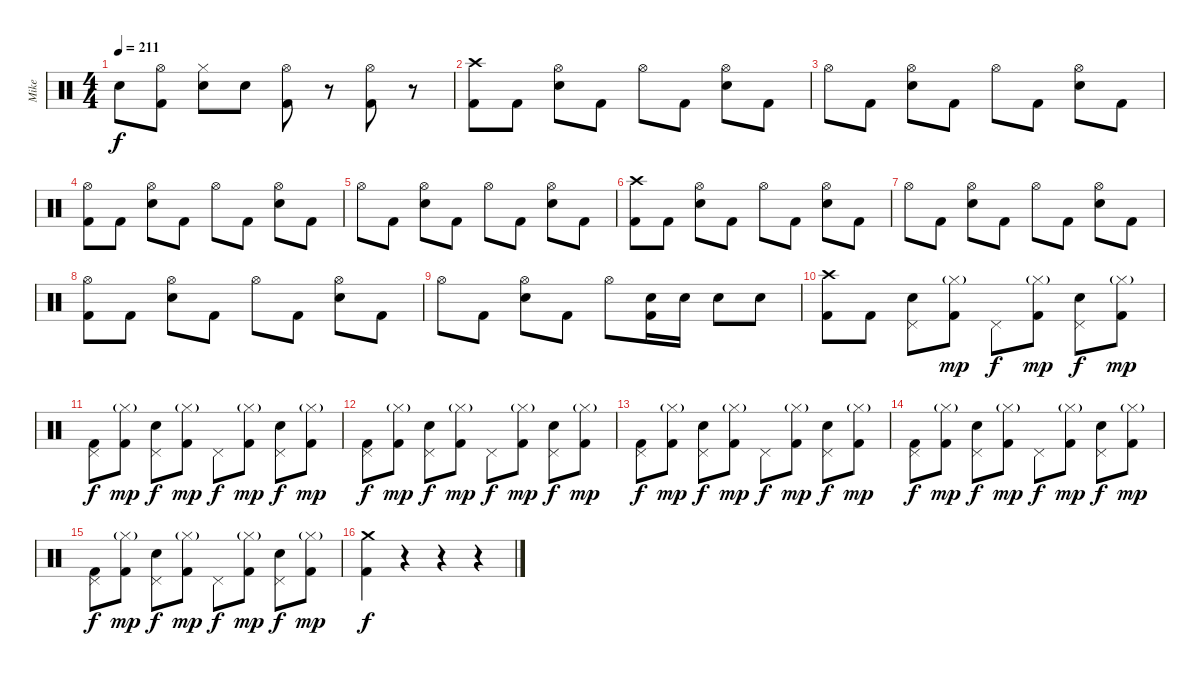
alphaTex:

\track ("Mike" "Mike") {instrument percussion}
\staff {score}
\articulation defaults
\ts (4 4)
\tempo 211
\clef neutral
\ks c "Electric Snare (hit)".8{dy f}
("Hi-Hat (open)" "Kick (hit) 2").8 ("Hi-Hat (closed)" "Electric Snare (hit)").8 "Electric Snare (hit)".8 ("Hi-Hat (open)" "Kick (hit) 2").8 r.8 ("Hi-Hat (open)" "Kick (hit) 2").8 r.8 |
("Crash high (hit)" "Kick (hit) 2").8 "Kick (hit) 2".8 ("Hi-Hat (open)" "Electric Snare (hit)").8 "Kick (hit) 2".8 "Hi-Hat (open)".8 "Kick (hit) 2".8 ("Hi-Hat (open)" "Electric Snare (hit)").8 "Kick (hit) 2".8 |
"Hi-Hat (open)".8 "Kick (hit) 2".8 ("Hi-Hat (open)" "Electric Snare (hit)").8 "Kick (hit) 2".8 "Hi-Hat (open)".8 "Kick (hit) 2".8 ("Hi-Hat (open)" "Electric Snare (hit)").8 "Kick (hit) 2".8 |
("Hi-Hat (open)" "Kick (hit) 2").8 "Kick (hit) 2".8 ("Hi-Hat (open)" "Electric Snare (hit)").8 "Kick (hit) 2".8 "Hi-Hat (open)".8 "Kick (hit) 2".8 ("Hi-Hat (open)" "Electric Snare (hit)").8 "Kick (hit) 2".8 |
"Hi-Hat (open)".8 "Kick (hit) 2".8 ("Hi-Hat (open)" "Electric Snare (hit)").8 "Kick (hit) 2".8 "Hi-Hat (open)".8 "Kick (hit) 2".8 ("Hi-Hat (open)" "Electric Snare (hit)").8 "Kick (hit) 2".8 |
("Crash high (hit)" "Kick (hit) 2").8 "Kick (hit) 2".8 ("Hi-Hat (open)" "Electric Snare (hit)").8 "Kick (hit) 2".8 "Hi-Hat (open)".8 "Kick (hit) 2".8 ("Hi-Hat (open)" "Electric Snare (hit)").8 "Kick (hit) 2".8 |
"Hi-Hat (open)".8 "Kick (hit) 2".8 ("Hi-Hat (open)" "Electric Snare (hit)").8 "Kick (hit) 2".8 "Hi-Hat (open)".8 "Kick (hit) 2".8 ("Hi-Hat (open)" "Electric Snare (hit)").8 "Kick (hit) 2".8 |
("Hi-Hat (open)" "Kick (hit) 2").8 "Kick (hit) 2".8 ("Hi-Hat (open)" "Electric Snare (hit)").8 "Kick (hit) 2".8 "Hi-Hat (open)".8 "Kick (hit) 2".8 ("Hi-Hat (open)" "Electric Snare (hit)").8 "Kick (hit) 2".8 |
"Hi-Hat (open)".8 "Kick (hit) 2".8 ("Hi-Hat (open)" "Electric Snare (hit)").8 "Kick (hit) 2".8 "Hi-Hat (open)".8 ("Electric Snare (hit)" "Kick (hit) 2").16 "Electric Snare (hit)".16 "Electric Snare (hit)".8 "Electric Snare (hit)".8 |
("Crash high (hit)" "Kick (hit) 2").8 "Kick (hit) 2".8 ("Pedal Hi-Hat (hit)" "Electric Snare (hit)").8 ("Hi-Hat (closed)"{g} "Kick (hit) 2").8{dy mp} "Pedal Hi-Hat (hit)".8{dy f} ("Hi-Hat (closed)"{g} "Kick (hit) 2").8{dy mp} ("Pedal Hi-Hat (hit)" "Electric Snare (hit)").8{dy f} ("Hi-Hat (closed)"{g} "Kick (hit) 2").8{dy mp} |
("Pedal Hi-Hat (hit)" "Kick (hit) 2").8{dy f} ("Hi-Hat (closed)"{g} "Kick (hit) 2").8{dy mp} ("Pedal Hi-Hat (hit)" "Electric Snare (hit)").8{dy f} ("Hi-Hat (closed)"{g} "Kick (hit) 2").8{dy mp} "Pedal Hi-Hat (hit)".8{dy f} ("Hi-Hat (closed)"{g} "Kick (hit) 2").8{dy mp} ("Pedal Hi-Hat (hit)" "Electric Snare (hit)").8{dy f} ("Hi-Hat (closed)"{g} "Kick (hit) 2").8{dy mp} |
("Pedal Hi-Hat (hit)" "Kick (hit) 2").8{dy f} ("Hi-Hat (closed)"{g} "Kick (hit) 2").8{dy mp} ("Pedal Hi-Hat (hit)" "Electric Snare (hit)").8{dy f} ("Hi-Hat (closed)"{g} "Kick (hit) 2").8{dy mp} "Pedal Hi-Hat (hit)".8{dy f} ("Hi-Hat (closed)"{g} "Kick (hit) 2").8{dy mp} ("Pedal Hi-Hat (hit)" "Electric Snare (hit)").8{dy f} ("Hi-Hat (closed)"{g} "Kick (hit) 2").8{dy mp} |
("Pedal Hi-Hat (hit)" "Kick (hit) 2").8{dy f} ("Hi-Hat (closed)"{g} "Kick (hit) 2").8{dy mp} ("Pedal Hi-Hat (hit)" "Electric Snare (hit)").8{dy f} ("Hi-Hat (closed)"{g} "Kick (hit) 2").8{dy mp} "Pedal Hi-Hat (hit)".8{dy f} ("Hi-Hat (closed)"{g} "Kick (hit) 2").8{dy mp} ("Pedal Hi-Hat (hit)" "Electric Snare (hit)").8{dy f} ("Hi-Hat (closed)"{g} "Kick (hit) 2").8{dy mp} |
("Pedal Hi-Hat (hit)" "Kick (hit) 2").8{dy f} ("Hi-Hat (closed)"{g} "Kick (hit) 2").8{dy mp} ("Pedal Hi-Hat (hit)" "Electric Snare (hit)").8{dy f} ("Hi-Hat (closed)"{g} "Kick (hit) 2").8{dy mp} "Pedal Hi-Hat (hit)".8{dy f} ("Hi-Hat (closed)"{g} "Kick (hit) 2").8{dy mp} ("Pedal Hi-Hat (hit)" "Electric Snare (hit)").8{dy f} ("Hi-Hat (closed)"{g} "Kick (hit) 2").8{dy mp} |
("Pedal Hi-Hat (hit)" "Kick (hit) 2").8{dy f} ("Hi-Hat (closed)"{g} "Kick (hit) 2").8{dy mp} ("Pedal Hi-Hat (hit)" "Electric Snare (hit)").8{dy f} ("Hi-Hat (closed)"{g} "Kick (hit) 2").8{dy mp} "Pedal Hi-Hat (hit)".8{dy f} ("Hi-Hat (closed)"{g} "Kick (hit) 2").8{dy mp} ("Pedal Hi-Hat (hit)" "Electric Snare (hit)").8{dy f} ("Hi-Hat (closed)"{g} "Kick (hit) 2").8{dy mp} |
("Crash medium (hit)" "Kick (hit) 2").4{dy f} r.4 r.4 r.4
